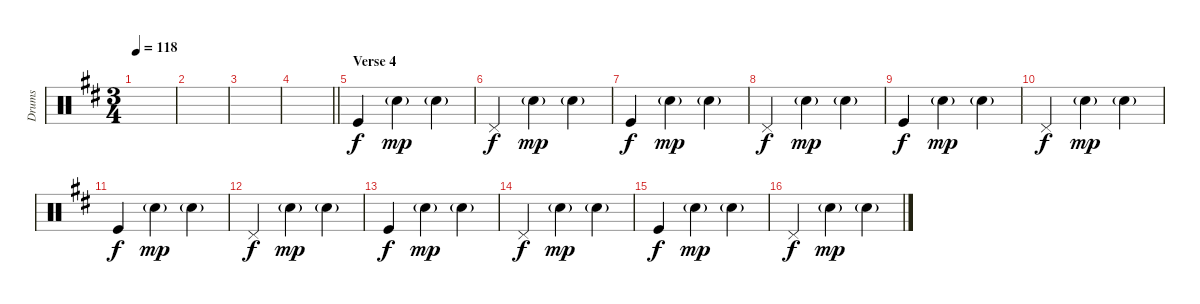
\track ("Drums" "Drums") {instrument percussion}
\staff {score}
\articulation defaults
\ts (3 4)
\tempo 118
\clef neutral
\ks d
|
|
|
\barLineRight lightlight
|
\section ("" "Verse 4")
"Kick (hit)".4 "Snare (hit) 2"{g}.4{dy mp} "Snare (hit) 2"{g}.4 |
"Pedal Hi-Hat (hit)".4{dy f} "Snare (hit) 2"{g}.4{dy mp} "Snare (hit) 2"{g}.4 |
"Kick (hit)".4{dy f} "Snare (hit) 2"{g}.4{dy mp} "Snare (hit) 2"{g}.4 |
"Pedal Hi-Hat (hit)".4{dy f} "Snare (hit) 2"{g}.4{dy mp} "Snare (hit) 2"{g}.4 |
"Kick (hit)".4{dy f} "Snare (hit) 2"{g}.4{dy mp} "Snare (hit) 2"{g}.4 |
"Pedal Hi-Hat (hit)".4{dy f} "Snare (hit) 2"{g}.4{dy mp} "Snare (hit) 2"{g}.4 |
"Kick (hit)".4{dy f} "Snare (hit) 2"{g}.4{dy mp} "Snare (hit) 2"{g}.4 |
"Pedal Hi-Hat (hit)".4{dy f} "Snare (hit) 2"{g}.4{dy mp} "Snare (hit) 2"{g}.4 |
"Kick (hit)".4{dy f} "Snare (hit) 2"{g}.4{dy mp} "Snare (hit) 2"{g}.4 |
"Pedal Hi-Hat (hit)".4{dy f} "Snare (hit) 2"{g}.4{dy mp} "Snare (hit) 2"{g}.4 |
"Kick (hit)".4{dy f} "Snare (hit) 2"{g}.4{dy mp} "Snare (hit) 2"{g}.4 |
"Pedal Hi-Hat (hit)".4{dy f} "Snare (hit) 2"{g}.4{dy mp} "Snare (hit) 2"{g}.4
